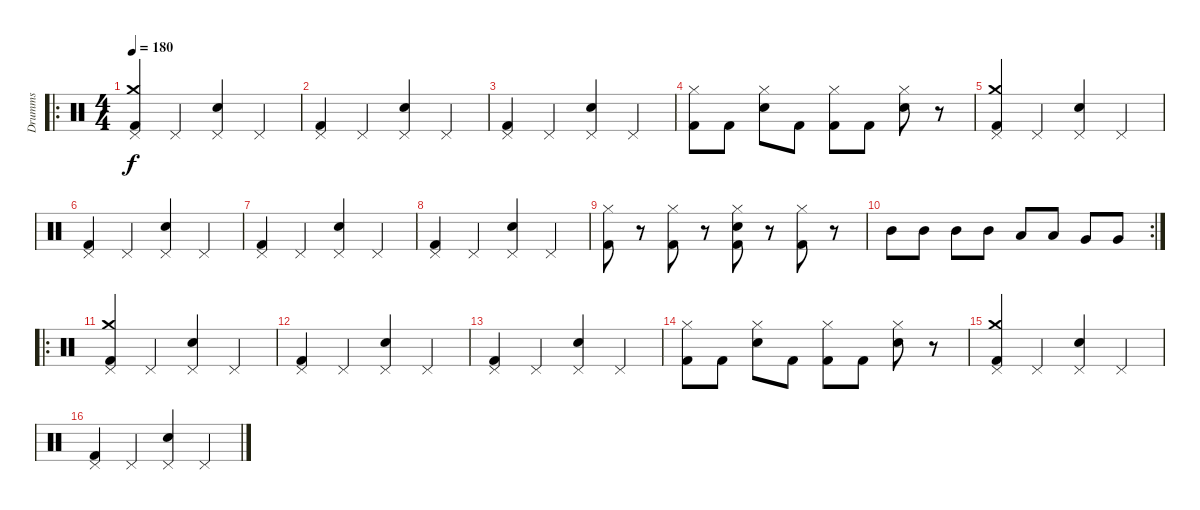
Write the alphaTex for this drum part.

\track ("Drumms" "Drumms") {instrument percussion}
\staff {score}
\articulation defaults
\ro
\ts (4 4)
\tempo 180
\clef neutral
\ks c
("Kick (hit) 2" "Crash medium (hit)" "Pedal Hi-Hat (hit)").4{dy f} "Pedal Hi-Hat (hit)".4 ("Snare (hit) 2" "Pedal Hi-Hat (hit)").4 "Pedal Hi-Hat (hit)".4 |
("Kick (hit) 2" "Pedal Hi-Hat (hit)").4 "Pedal Hi-Hat (hit)".4 ("Snare (hit) 2" "Pedal Hi-Hat (hit)").4 "Pedal Hi-Hat (hit)".4 |
("Kick (hit) 2" "Pedal Hi-Hat (hit)").4 "Pedal Hi-Hat (hit)".4 ("Snare (hit) 2" "Pedal Hi-Hat (hit)").4 "Pedal Hi-Hat (hit)".4 |
("Kick (hit) 2" "Hi-Hat (closed)").8 "Kick (hit) 2".8 ("Snare (hit) 2" "Hi-Hat (closed)").8 "Kick (hit) 2".8 ("Kick (hit) 2" "Hi-Hat (closed)").8 "Kick (hit) 2".8 ("Snare (hit) 2" "Hi-Hat (closed)").8 r.8 |
("Kick (hit) 2" "Crash medium (hit)" "Pedal Hi-Hat (hit)").4 "Pedal Hi-Hat (hit)".4 ("Snare (hit) 2" "Pedal Hi-Hat (hit)").4 "Pedal Hi-Hat (hit)".4 |
("Kick (hit) 2" "Pedal Hi-Hat (hit)").4 "Pedal Hi-Hat (hit)".4 ("Snare (hit) 2" "Pedal Hi-Hat (hit)").4 "Pedal Hi-Hat (hit)".4 |
("Kick (hit) 2" "Pedal Hi-Hat (hit)").4 "Pedal Hi-Hat (hit)".4 ("Snare (hit) 2" "Pedal Hi-Hat (hit)").4 "Pedal Hi-Hat (hit)".4 |
("Kick (hit) 2" "Pedal Hi-Hat (hit)").4 "Pedal Hi-Hat (hit)".4 ("Snare (hit) 2" "Pedal Hi-Hat (hit)").4 "Pedal Hi-Hat (hit)".4 |
("Kick (hit) 2" "Hi-Hat (closed)").8 r.8 ("Kick (hit) 2" "Hi-Hat (closed)").8 r.8 ("Kick (hit) 2" "Snare (hit) 2" "Hi-Hat (closed)").8 r.8 ("Kick (hit) 2" "Hi-Hat (closed)").8 r.8 |
\rc 2 "Mid Tom (hit)".8 "Mid Tom (hit)".8 "Mid Tom (hit)".8 "Mid Tom (hit)".8 "Low Tom (hit)".8 "Low Tom (hit)".8 "Very Low Tom (hit)".8 "Very Low Tom (hit)".8
|
\ro
("Kick (hit) 2" "Crash medium (hit)" "Pedal Hi-Hat (hit)").4 "Pedal Hi-Hat (hit)".4 ("Snare (hit) 2" "Pedal Hi-Hat (hit)").4 "Pedal Hi-Hat (hit)".4 |
("Kick (hit) 2" "Pedal Hi-Hat (hit)").4 "Pedal Hi-Hat (hit)".4 ("Snare (hit) 2" "Pedal Hi-Hat (hit)").4 "Pedal Hi-Hat (hit)".4 |
("Kick (hit) 2" "Pedal Hi-Hat (hit)").4 "Pedal Hi-Hat (hit)".4 ("Snare (hit) 2" "Pedal Hi-Hat (hit)").4 "Pedal Hi-Hat (hit)".4 |
("Kick (hit) 2" "Hi-Hat (closed)").8 "Kick (hit) 2".8 ("Snare (hit) 2" "Hi-Hat (closed)").8 "Kick (hit) 2".8 ("Kick (hit) 2" "Hi-Hat (closed)").8 "Kick (hit) 2".8 ("Snare (hit) 2" "Hi-Hat (closed)").8 r.8 |
("Kick (hit) 2" "Crash medium (hit)" "Pedal Hi-Hat (hit)").4 "Pedal Hi-Hat (hit)".4 ("Snare (hit) 2" "Pedal Hi-Hat (hit)").4 "Pedal Hi-Hat (hit)".4 |
("Kick (hit) 2" "Pedal Hi-Hat (hit)").4 "Pedal Hi-Hat (hit)".4 ("Snare (hit) 2" "Pedal Hi-Hat (hit)").4 "Pedal Hi-Hat (hit)".4
